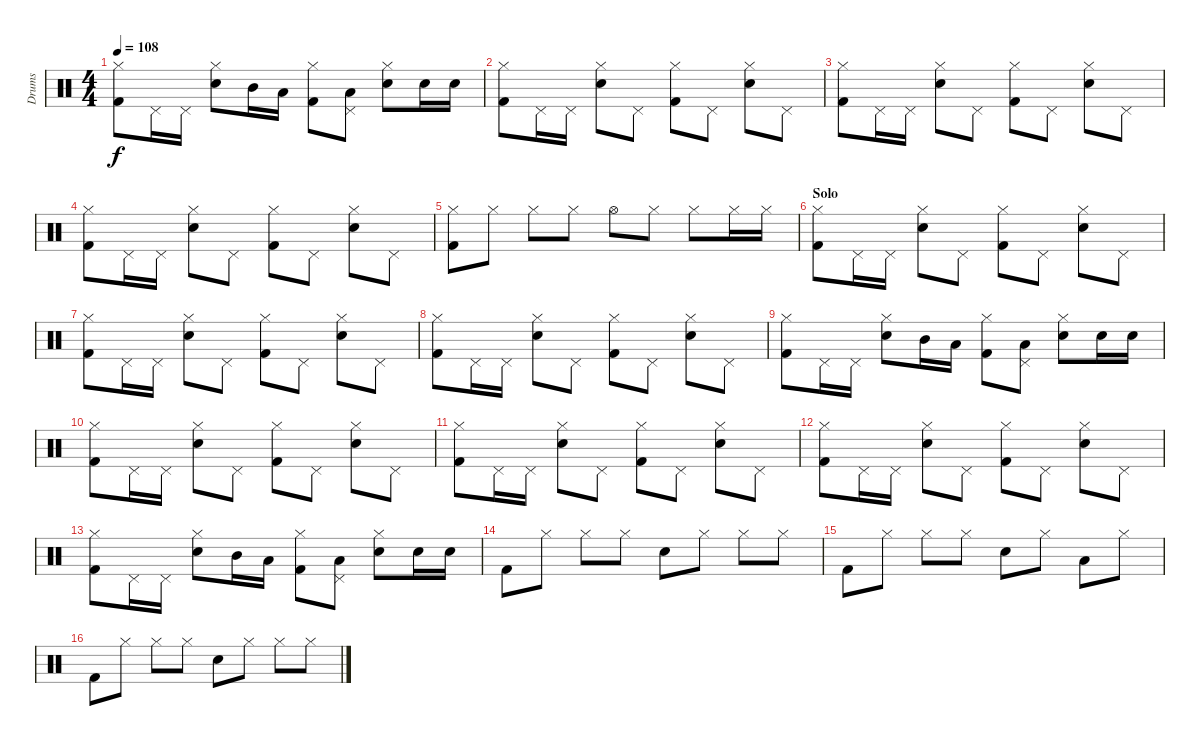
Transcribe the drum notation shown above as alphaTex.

\track ("Drums" "Drums") {instrument percussion}
\staff {score}
\articulation defaults
\ts (4 4)
\tempo 108
\clef neutral
\ks c
("Hi-Hat (closed)" "Kick (hit) 2").8{dy f} "Pedal Hi-Hat (hit)".16 "Pedal Hi-Hat (hit)".16 ("Hi-Hat (closed)" "Electric Snare (hit)").8 "Mid Tom (hit)".16 "Low Tom (hit)".16 ("Hi-Hat (closed)" "Kick (hit) 2").8 ("Pedal Hi-Hat (hit)" "Low Tom (hit)").8 ("Hi-Hat (closed)" "Electric Snare (hit)").8 "Electric Snare (hit)".16 "Electric Snare (hit)".16 |
("Hi-Hat (closed)" "Kick (hit) 2").8 "Pedal Hi-Hat (hit)".16 "Pedal Hi-Hat (hit)".16 ("Hi-Hat (closed)" "Electric Snare (hit)").8 "Pedal Hi-Hat (hit)".8 ("Hi-Hat (closed)" "Kick (hit) 2").8 "Pedal Hi-Hat (hit)".8 ("Hi-Hat (closed)" "Electric Snare (hit)").8 "Pedal Hi-Hat (hit)".8 |
("Hi-Hat (closed)" "Kick (hit) 2").8 "Pedal Hi-Hat (hit)".16 "Pedal Hi-Hat (hit)".16 ("Hi-Hat (closed)" "Electric Snare (hit)").8 "Pedal Hi-Hat (hit)".8 ("Hi-Hat (closed)" "Kick (hit) 2").8 "Pedal Hi-Hat (hit)".8 ("Hi-Hat (closed)" "Electric Snare (hit)").8 "Pedal Hi-Hat (hit)".8 |
("Hi-Hat (closed)" "Kick (hit) 2").8 "Pedal Hi-Hat (hit)".16 "Pedal Hi-Hat (hit)".16 ("Hi-Hat (closed)" "Electric Snare (hit)").8 "Pedal Hi-Hat (hit)".8 ("Hi-Hat (closed)" "Kick (hit) 2").8 "Pedal Hi-Hat (hit)".8 ("Hi-Hat (closed)" "Electric Snare (hit)").8 "Pedal Hi-Hat (hit)".8 |
("Hi-Hat (closed)" "Kick (hit) 2").8 "Hi-Hat (closed)".8 "Hi-Hat (closed)".8 "Hi-Hat (closed)".8 "Hi-Hat (open)".8 "Hi-Hat (closed)".8 "Hi-Hat (closed)".8 "Hi-Hat (closed)".16 "Hi-Hat (closed)".16 |
\section ("" "Solo")
("Hi-Hat (closed)" "Kick (hit) 2").8 "Pedal Hi-Hat (hit)".16 "Pedal Hi-Hat (hit)".16 ("Hi-Hat (closed)" "Electric Snare (hit)").8 "Pedal Hi-Hat (hit)".8 ("Hi-Hat (closed)" "Kick (hit) 2").8 "Pedal Hi-Hat (hit)".8 ("Hi-Hat (closed)" "Electric Snare (hit)").8 "Pedal Hi-Hat (hit)".8 |
("Hi-Hat (closed)" "Kick (hit) 2").8 "Pedal Hi-Hat (hit)".16 "Pedal Hi-Hat (hit)".16 ("Hi-Hat (closed)" "Electric Snare (hit)").8 "Pedal Hi-Hat (hit)".8 ("Hi-Hat (closed)" "Kick (hit) 2").8 "Pedal Hi-Hat (hit)".8 ("Hi-Hat (closed)" "Electric Snare (hit)").8 "Pedal Hi-Hat (hit)".8 |
("Hi-Hat (closed)" "Kick (hit) 2").8 "Pedal Hi-Hat (hit)".16 "Pedal Hi-Hat (hit)".16 ("Hi-Hat (closed)" "Electric Snare (hit)").8 "Pedal Hi-Hat (hit)".8 ("Hi-Hat (closed)" "Kick (hit) 2").8 "Pedal Hi-Hat (hit)".8 ("Hi-Hat (closed)" "Electric Snare (hit)").8 "Pedal Hi-Hat (hit)".8 |
("Hi-Hat (closed)" "Kick (hit) 2").8 "Pedal Hi-Hat (hit)".16 "Pedal Hi-Hat (hit)".16 ("Hi-Hat (closed)" "Electric Snare (hit)").8 "Mid Tom (hit)".16 "Low Tom (hit)".16 ("Hi-Hat (closed)" "Kick (hit) 2").8 ("Pedal Hi-Hat (hit)" "Low Tom (hit)").8 ("Hi-Hat (closed)" "Electric Snare (hit)").8 "Electric Snare (hit)".16 "Electric Snare (hit)".16 |
("Hi-Hat (closed)" "Kick (hit) 2").8 "Pedal Hi-Hat (hit)".16 "Pedal Hi-Hat (hit)".16 ("Hi-Hat (closed)" "Electric Snare (hit)").8 "Pedal Hi-Hat (hit)".8 ("Hi-Hat (closed)" "Kick (hit) 2").8 "Pedal Hi-Hat (hit)".8 ("Hi-Hat (closed)" "Electric Snare (hit)").8 "Pedal Hi-Hat (hit)".8 |
("Hi-Hat (closed)" "Kick (hit) 2").8 "Pedal Hi-Hat (hit)".16 "Pedal Hi-Hat (hit)".16 ("Hi-Hat (closed)" "Electric Snare (hit)").8 "Pedal Hi-Hat (hit)".8 ("Hi-Hat (closed)" "Kick (hit) 2").8 "Pedal Hi-Hat (hit)".8 ("Hi-Hat (closed)" "Electric Snare (hit)").8 "Pedal Hi-Hat (hit)".8 |
("Hi-Hat (closed)" "Kick (hit) 2").8 "Pedal Hi-Hat (hit)".16 "Pedal Hi-Hat (hit)".16 ("Hi-Hat (closed)" "Electric Snare (hit)").8 "Pedal Hi-Hat (hit)".8 ("Hi-Hat (closed)" "Kick (hit) 2").8 "Pedal Hi-Hat (hit)".8 ("Hi-Hat (closed)" "Electric Snare (hit)").8 "Pedal Hi-Hat (hit)".8 |
("Hi-Hat (closed)" "Kick (hit) 2").8 "Pedal Hi-Hat (hit)".16 "Pedal Hi-Hat (hit)".16 ("Hi-Hat (closed)" "Electric Snare (hit)").8 "Mid Tom (hit)".16 "Low Tom (hit)".16 ("Hi-Hat (closed)" "Kick (hit) 2").8 ("Pedal Hi-Hat (hit)" "Low Tom (hit)").8 ("Hi-Hat (closed)" "Electric Snare (hit)").8 "Electric Snare (hit)".16 "Electric Snare (hit)".16 |
"Kick (hit) 2".8 "Hi-Hat (closed)".8 "Hi-Hat (closed)".8 "Hi-Hat (closed)".8 "Electric Snare (hit)".8 "Hi-Hat (closed)".8 "Hi-Hat (closed)".8 "Hi-Hat (closed)".8 |
"Kick (hit) 2".8 "Hi-Hat (closed)".8 "Hi-Hat (closed)".8 "Hi-Hat (closed)".8 "Electric Snare (hit)".8 "Hi-Hat (closed)".8 "Low Tom (hit)".8 "Hi-Hat (closed)".8 |
"Kick (hit) 2".8 "Hi-Hat (closed)".8 "Hi-Hat (closed)".8 "Hi-Hat (closed)".8 "Electric Snare (hit)".8 "Hi-Hat (closed)".8 "Hi-Hat (closed)".8 "Hi-Hat (closed)".8
